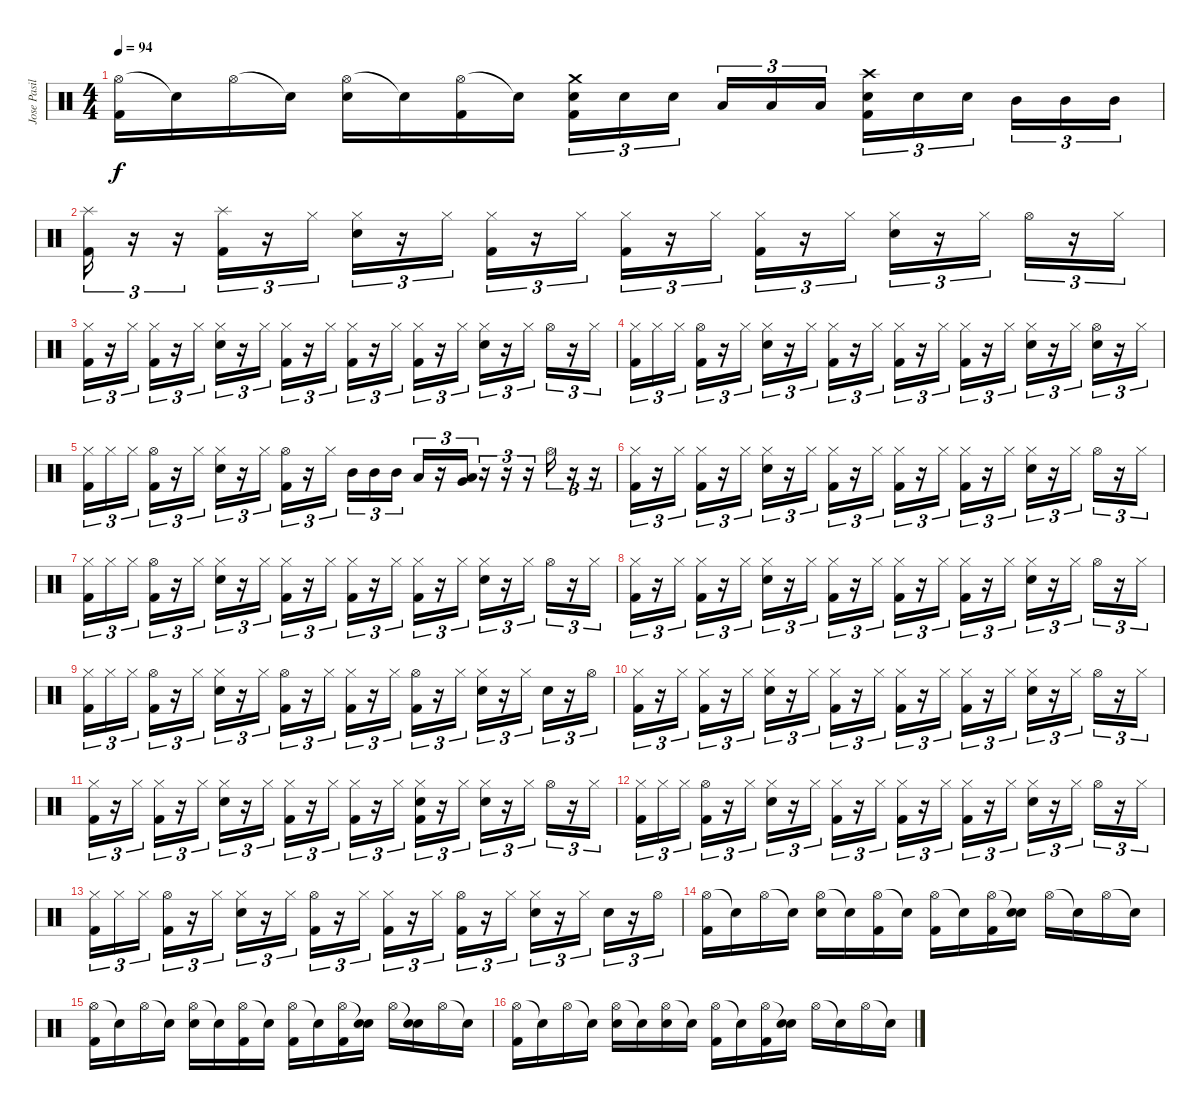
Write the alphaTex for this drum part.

\track ("Jose Pasillas" "Jose Pasil") {instrument percussion}
\staff {score}
\articulation defaults
\ts (4 4)
\tempo 94
\clef neutral
\ks c
("Hi-Hat (open)" "Kick (hit) 2").16{dy f} "Snare (hit)"{t}.16 "Hi-Hat (open)".16 "Snare (hit)"{t}.16 ("Hi-Hat (open)" "Electric Snare (hit)").16 "Snare (hit)"{t}.16 ("Hi-Hat (open)" "Kick (hit) 2").16 "Snare (hit)"{t}.16 ("Crash medium (hit)" "Electric Snare (hit)" "Kick (hit) 2").16{tu (3 2)} "Electric Snare (hit)".16{tu (3 2)} "Electric Snare (hit)".16{tu (3 2)} "Low Tom (hit)".16{tu (3 2)} "Low Tom (hit)".16{tu (3 2)} "Low Tom (hit)".16{tu (3 2)} ("Crash high (hit)" "Electric Snare (hit)" "Kick (hit) 2").16{tu (3 2)} "Electric Snare (hit)".16{tu (3 2)} "Electric Snare (hit)".16{tu (3 2)} "Mid Tom (hit)".16{tu (3 2)} "Mid Tom (hit)".16{tu (3 2)} "Mid Tom (hit)".16{tu (3 2)} |
("Splash (hit)" "Kick (hit) 2").16{tu (3 2)} r.16{tu (3 2)} r.16{tu (3 2)} ("Splash (hit)" "Kick (hit) 2").16{tu (3 2)} r.16{tu (3 2)} "Hi-Hat (closed)".16{tu (3 2)} ("Hi-Hat (closed)" "Electric Snare (hit)").16{tu (3 2)} r.16{tu (3 2)} "Hi-Hat (closed)".16{tu (3 2)} ("Hi-Hat (closed)" "Kick (hit) 2").16{tu (3 2)} r.16{tu (3 2)} "Hi-Hat (closed)".16{tu (3 2)} ("Hi-Hat (closed)" "Kick (hit) 2").16{tu (3 2)} r.16{tu (3 2)} "Hi-Hat (closed)".16{tu (3 2)} ("Hi-Hat (closed)" "Kick (hit) 2").16{tu (3 2)} r.16{tu (3 2)} "Hi-Hat (closed)".16{tu (3 2)} ("Hi-Hat (closed)" "Electric Snare (hit)").16{tu (3 2)} r.16{tu (3 2)} "Hi-Hat (closed)".16{tu (3 2)} "Hi-Hat (open)".16{tu (3 2)} r.16{tu (3 2)} "Hi-Hat (closed)".16{tu (3 2)} |
("Hi-Hat (closed)" "Kick (hit) 2").16{tu (3 2)} r.16{tu (3 2)} "Hi-Hat (closed)".16{tu (3 2)} ("Hi-Hat (closed)" "Kick (hit) 2").16{tu (3 2)} r.16{tu (3 2)} "Hi-Hat (closed)".16{tu (3 2)} ("Hi-Hat (closed)" "Electric Snare (hit)").16{tu (3 2)} r.16{tu (3 2)} "Hi-Hat (closed)".16{tu (3 2)} ("Hi-Hat (closed)" "Kick (hit) 2").16{tu (3 2)} r.16{tu (3 2)} "Hi-Hat (closed)".16{tu (3 2)} ("Hi-Hat (closed)" "Kick (hit) 2").16{tu (3 2)} r.16{tu (3 2)} "Hi-Hat (closed)".16{tu (3 2)} ("Hi-Hat (closed)" "Kick (hit) 2").16{tu (3 2)} r.16{tu (3 2)} "Hi-Hat (closed)".16{tu (3 2)} ("Hi-Hat (closed)" "Electric Snare (hit)").16{tu (3 2)} r.16{tu (3 2)} "Hi-Hat (closed)".16{tu (3 2)} "Hi-Hat (open)".16{tu (3 2)} r.16{tu (3 2)} "Hi-Hat (closed)".16{tu (3 2)} |
("Hi-Hat (closed)" "Kick (hit) 2").16{tu (3 2)} "Hi-Hat (closed)".16{tu (3 2)} "Hi-Hat (closed)".16{tu (3 2)} ("Hi-Hat (open)" "Kick (hit) 2").16{tu (3 2)} r.16{tu (3 2)} "Hi-Hat (closed)".16{tu (3 2)} ("Hi-Hat (closed)" "Electric Snare (hit)").16{tu (3 2)} r.16{tu (3 2)} "Hi-Hat (closed)".16{tu (3 2)} ("Hi-Hat (closed)" "Kick (hit) 2").16{tu (3 2)} r.16{tu (3 2)} "Hi-Hat (closed)".16{tu (3 2)} ("Hi-Hat (closed)" "Kick (hit) 2").16{tu (3 2)} r.16{tu (3 2)} "Hi-Hat (closed)".16{tu (3 2)} ("Hi-Hat (closed)" "Kick (hit) 2").16{tu (3 2)} r.16{tu (3 2)} "Hi-Hat (closed)".16{tu (3 2)} ("Hi-Hat (closed)" "Electric Snare (hit)").16{tu (3 2)} r.16{tu (3 2)} "Hi-Hat (closed)".16{tu (3 2)} ("Hi-Hat (open)" "Electric Snare (hit)").16{tu (3 2)} r.16{tu (3 2)} "Hi-Hat (closed)".16{tu (3 2)} |
("Hi-Hat (closed)" "Kick (hit) 2").16{tu (3 2)} "Hi-Hat (closed)".16{tu (3 2)} "Hi-Hat (closed)".16{tu (3 2)} ("Hi-Hat (open)" "Kick (hit) 2").16{tu (3 2)} r.16{tu (3 2)} "Hi-Hat (closed)".16{tu (3 2)} ("Hi-Hat (closed)" "Electric Snare (hit)").16{tu (3 2)} r.16{tu (3 2)} "Hi-Hat (closed)".16{tu (3 2)} ("Hi-Hat (open)" "Kick (hit) 2").16{tu (3 2)} r.16{tu (3 2)} "Hi-Hat (closed)".16{tu (3 2)} "Mid Tom (hit)".16{tu (3 2)} "Mid Tom (hit)".16{tu (3 2)} "Mid Tom (hit)".16{tu (3 2)} "Low Tom (hit)".16{tu (3 2)} r.16{tu (3 2)} ("Low Floor Tom (hit)" "Very Low Tom (hit)").16{tu (3 2)} r.16{tu (3 2)} r.16{tu (3 2)} r.16{tu (3 2)} "Hi-Hat (open)".16{tu (3 2)} r.16{tu (3 2)} r.16{tu (3 2)} |
("Hi-Hat (closed)" "Kick (hit) 2").16{tu (3 2)} r.16{tu (3 2)} "Hi-Hat (closed)".16{tu (3 2)} ("Hi-Hat (closed)" "Kick (hit) 2").16{tu (3 2)} r.16{tu (3 2)} "Hi-Hat (closed)".16{tu (3 2)} ("Hi-Hat (closed)" "Electric Snare (hit)").16{tu (3 2)} r.16{tu (3 2)} "Hi-Hat (closed)".16{tu (3 2)} ("Hi-Hat (closed)" "Kick (hit) 2").16{tu (3 2)} r.16{tu (3 2)} "Hi-Hat (closed)".16{tu (3 2)} ("Hi-Hat (closed)" "Kick (hit) 2").16{tu (3 2)} r.16{tu (3 2)} "Hi-Hat (closed)".16{tu (3 2)} ("Hi-Hat (closed)" "Kick (hit) 2").16{tu (3 2)} r.16{tu (3 2)} "Hi-Hat (closed)".16{tu (3 2)} ("Hi-Hat (closed)" "Electric Snare (hit)").16{tu (3 2)} r.16{tu (3 2)} "Hi-Hat (closed)".16{tu (3 2)} "Hi-Hat (open)".16{tu (3 2)} r.16{tu (3 2)} "Hi-Hat (closed)".16{tu (3 2)} |
("Hi-Hat (closed)" "Kick (hit) 2").16{tu (3 2)} "Hi-Hat (closed)".16{tu (3 2)} "Hi-Hat (closed)".16{tu (3 2)} ("Hi-Hat (open)" "Kick (hit) 2").16{tu (3 2)} r.16{tu (3 2)} "Hi-Hat (closed)".16{tu (3 2)} ("Hi-Hat (closed)" "Electric Snare (hit)").16{tu (3 2)} r.16{tu (3 2)} "Hi-Hat (closed)".16{tu (3 2)} ("Hi-Hat (closed)" "Kick (hit) 2").16{tu (3 2)} r.16{tu (3 2)} "Hi-Hat (closed)".16{tu (3 2)} ("Hi-Hat (closed)" "Kick (hit) 2").16{tu (3 2)} r.16{tu (3 2)} "Hi-Hat (closed)".16{tu (3 2)} ("Hi-Hat (closed)" "Kick (hit) 2").16{tu (3 2)} r.16{tu (3 2)} "Hi-Hat (closed)".16{tu (3 2)} ("Hi-Hat (closed)" "Electric Snare (hit)").16{tu (3 2)} r.16{tu (3 2)} "Hi-Hat (closed)".16{tu (3 2)} "Hi-Hat (open)".16{tu (3 2)} r.16{tu (3 2)} "Hi-Hat (closed)".16{tu (3 2)} |
("Hi-Hat (closed)" "Kick (hit) 2").16{tu (3 2)} r.16{tu (3 2)} "Hi-Hat (closed)".16{tu (3 2)} ("Hi-Hat (closed)" "Kick (hit) 2").16{tu (3 2)} r.16{tu (3 2)} "Hi-Hat (closed)".16{tu (3 2)} ("Hi-Hat (closed)" "Electric Snare (hit)").16{tu (3 2)} r.16{tu (3 2)} "Hi-Hat (closed)".16{tu (3 2)} ("Hi-Hat (closed)" "Kick (hit) 2").16{tu (3 2)} r.16{tu (3 2)} "Hi-Hat (closed)".16{tu (3 2)} ("Hi-Hat (closed)" "Kick (hit) 2").16{tu (3 2)} r.16{tu (3 2)} "Hi-Hat (closed)".16{tu (3 2)} ("Hi-Hat (closed)" "Kick (hit) 2").16{tu (3 2)} r.16{tu (3 2)} "Hi-Hat (closed)".16{tu (3 2)} ("Hi-Hat (closed)" "Electric Snare (hit)").16{tu (3 2)} r.16{tu (3 2)} "Hi-Hat (closed)".16{tu (3 2)} "Hi-Hat (open)".16{tu (3 2)} r.16{tu (3 2)} "Hi-Hat (closed)".16{tu (3 2)} |
("Hi-Hat (closed)" "Kick (hit) 2").16{tu (3 2)} "Hi-Hat (closed)".16{tu (3 2)} "Hi-Hat (closed)".16{tu (3 2)} ("Hi-Hat (open)" "Kick (hit) 2").16{tu (3 2)} r.16{tu (3 2)} "Hi-Hat (closed)".16{tu (3 2)} ("Hi-Hat (closed)" "Electric Snare (hit)").16{tu (3 2)} r.16{tu (3 2)} "Hi-Hat (closed)".16{tu (3 2)} ("Hi-Hat (open)" "Kick (hit) 2").16{tu (3 2)} r.16{tu (3 2)} "Hi-Hat (closed)".16{tu (3 2)} ("Hi-Hat (closed)" "Kick (hit) 2").16{tu (3 2)} r.16{tu (3 2)} "Hi-Hat (closed)".16{tu (3 2)} ("Hi-Hat (open)" "Kick (hit) 2").16{tu (3 2)} r.16{tu (3 2)} "Hi-Hat (closed)".16{tu (3 2)} ("Hi-Hat (closed)" "Electric Snare (hit)").16{tu (3 2)} r.16{tu (3 2)} "Hi-Hat (closed)".16{tu (3 2)} "Electric Snare (hit)".16{tu (3 2)} r.16{tu (3 2)} "Hi-Hat (open)".16{tu (3 2)} |
("Hi-Hat (closed)" "Kick (hit) 2").16{tu (3 2)} r.16{tu (3 2)} "Hi-Hat (closed)".16{tu (3 2)} ("Hi-Hat (closed)" "Kick (hit) 2").16{tu (3 2)} r.16{tu (3 2)} "Hi-Hat (closed)".16{tu (3 2)} ("Hi-Hat (closed)" "Electric Snare (hit)").16{tu (3 2)} r.16{tu (3 2)} "Hi-Hat (closed)".16{tu (3 2)} ("Hi-Hat (closed)" "Kick (hit) 2").16{tu (3 2)} r.16{tu (3 2)} "Hi-Hat (closed)".16{tu (3 2)} ("Hi-Hat (closed)" "Kick (hit) 2").16{tu (3 2)} r.16{tu (3 2)} "Hi-Hat (closed)".16{tu (3 2)} ("Hi-Hat (closed)" "Kick (hit) 2").16{tu (3 2)} r.16{tu (3 2)} "Hi-Hat (closed)".16{tu (3 2)} ("Hi-Hat (closed)" "Electric Snare (hit)").16{tu (3 2)} r.16{tu (3 2)} "Hi-Hat (closed)".16{tu (3 2)} "Hi-Hat (open)".16{tu (3 2)} r.16{tu (3 2)} "Hi-Hat (closed)".16{tu (3 2)} |
("Hi-Hat (closed)" "Kick (hit) 2").16{tu (3 2)} r.16{tu (3 2)} "Hi-Hat (closed)".16{tu (3 2)} ("Hi-Hat (closed)" "Kick (hit) 2").16{tu (3 2)} r.16{tu (3 2)} "Hi-Hat (closed)".16{tu (3 2)} ("Hi-Hat (closed)" "Electric Snare (hit)").16{tu (3 2)} r.16{tu (3 2)} "Hi-Hat (closed)".16{tu (3 2)} ("Hi-Hat (closed)" "Kick (hit) 2").16{tu (3 2)} r.16{tu (3 2)} "Hi-Hat (closed)".16{tu (3 2)} ("Hi-Hat (closed)" "Kick (hit) 2").16{tu (3 2)} r.16{tu (3 2)} "Hi-Hat (closed)".16{tu (3 2)} ("Hi-Hat (closed)" "Electric Snare (hit)" "Kick (hit) 2").16{tu (3 2)} r.16{tu (3 2)} "Hi-Hat (closed)".16{tu (3 2)} ("Hi-Hat (closed)" "Electric Snare (hit)").16{tu (3 2)} r.16{tu (3 2)} "Hi-Hat (closed)".16{tu (3 2)} "Hi-Hat (open)".16{tu (3 2)} r.16{tu (3 2)} "Hi-Hat (closed)".16{tu (3 2)} |
("Hi-Hat (closed)" "Kick (hit) 2").16{tu (3 2)} "Hi-Hat (closed)".16{tu (3 2)} "Hi-Hat (closed)".16{tu (3 2)} ("Hi-Hat (open)" "Kick (hit) 2").16{tu (3 2)} r.16{tu (3 2)} "Hi-Hat (closed)".16{tu (3 2)} ("Hi-Hat (closed)" "Electric Snare (hit)").16{tu (3 2)} r.16{tu (3 2)} "Hi-Hat (closed)".16{tu (3 2)} ("Hi-Hat (closed)" "Kick (hit) 2").16{tu (3 2)} r.16{tu (3 2)} "Hi-Hat (closed)".16{tu (3 2)} ("Hi-Hat (closed)" "Kick (hit) 2").16{tu (3 2)} r.16{tu (3 2)} "Hi-Hat (closed)".16{tu (3 2)} ("Hi-Hat (closed)" "Kick (hit) 2").16{tu (3 2)} r.16{tu (3 2)} "Hi-Hat (closed)".16{tu (3 2)} ("Hi-Hat (closed)" "Electric Snare (hit)").16{tu (3 2)} r.16{tu (3 2)} "Hi-Hat (closed)".16{tu (3 2)} "Hi-Hat (open)".16{tu (3 2)} r.16{tu (3 2)} "Hi-Hat (closed)".16{tu (3 2)} |
("Hi-Hat (closed)" "Kick (hit) 2").16{tu (3 2)} "Hi-Hat (closed)".16{tu (3 2)} "Hi-Hat (closed)".16{tu (3 2)} ("Hi-Hat (open)" "Kick (hit) 2").16{tu (3 2)} r.16{tu (3 2)} "Hi-Hat (closed)".16{tu (3 2)} ("Hi-Hat (closed)" "Electric Snare (hit)").16{tu (3 2)} r.16{tu (3 2)} "Hi-Hat (closed)".16{tu (3 2)} ("Hi-Hat (open)" "Kick (hit) 2").16{tu (3 2)} r.16{tu (3 2)} "Hi-Hat (closed)".16{tu (3 2)} ("Hi-Hat (closed)" "Kick (hit) 2").16{tu (3 2)} r.16{tu (3 2)} "Hi-Hat (closed)".16{tu (3 2)} ("Hi-Hat (open)" "Kick (hit) 2").16{tu (3 2)} r.16{tu (3 2)} "Hi-Hat (closed)".16{tu (3 2)} ("Hi-Hat (closed)" "Electric Snare (hit)").16{tu (3 2)} r.16{tu (3 2)} "Hi-Hat (closed)".16{tu (3 2)} "Electric Snare (hit)".16{tu (3 2)} r.16{tu (3 2)} "Hi-Hat (open)".16{tu (3 2)} |
("Hi-Hat (open)" "Kick (hit) 2").16 "Snare (hit)"{t}.16 "Hi-Hat (open)".16 "Snare (hit)"{t}.16 ("Hi-Hat (open)" "Electric Snare (hit)").16 "Snare (hit)"{t}.16 ("Hi-Hat (open)" "Kick (hit) 2").16 "Snare (hit)"{t}.16 ("Hi-Hat (open)" "Kick (hit) 2").16 "Snare (hit)"{t}.16 ("Hi-Hat (open)" "Kick (hit) 2").16 ("Snare (hit)"{t} "Electric Snare (hit)").16 "Hi-Hat (open)".16 "Snare (hit)"{t}.16 "Hi-Hat (open)".16 "Snare (hit)"{t}.16 |
("Hi-Hat (open)" "Kick (hit) 2").16 "Snare (hit)"{t}.16 "Hi-Hat (open)".16 "Snare (hit)"{t}.16 ("Hi-Hat (open)" "Electric Snare (hit)").16 "Snare (hit)"{t}.16 ("Hi-Hat (open)" "Kick (hit) 2").16 "Snare (hit)"{t}.16 ("Hi-Hat (open)" "Kick (hit) 2").16 "Snare (hit)"{t}.16 ("Hi-Hat (open)" "Kick (hit) 2").16 ("Snare (hit)"{t} "Electric Snare (hit)").16 "Hi-Hat (open)".16 ("Snare (hit)"{t} "Electric Snare (hit)").16 "Hi-Hat (open)".16 "Snare (hit)"{t}.16 |
("Hi-Hat (open)" "Kick (hit) 2").16 "Snare (hit)"{t}.16 "Hi-Hat (open)".16 "Snare (hit)"{t}.16 ("Hi-Hat (open)" "Electric Snare (hit)").16 "Snare (hit)"{t}.16 ("Hi-Hat (open)" "Electric Snare (hit)").16 "Snare (hit)"{t}.16 ("Hi-Hat (open)" "Kick (hit) 2").16 "Snare (hit)"{t}.16 ("Hi-Hat (open)" "Kick (hit) 2").16 ("Snare (hit)"{t} "Electric Snare (hit)").16 "Hi-Hat (open)".16 "Snare (hit)"{t}.16 "Hi-Hat (open)".16 "Snare (hit)"{t}.16
